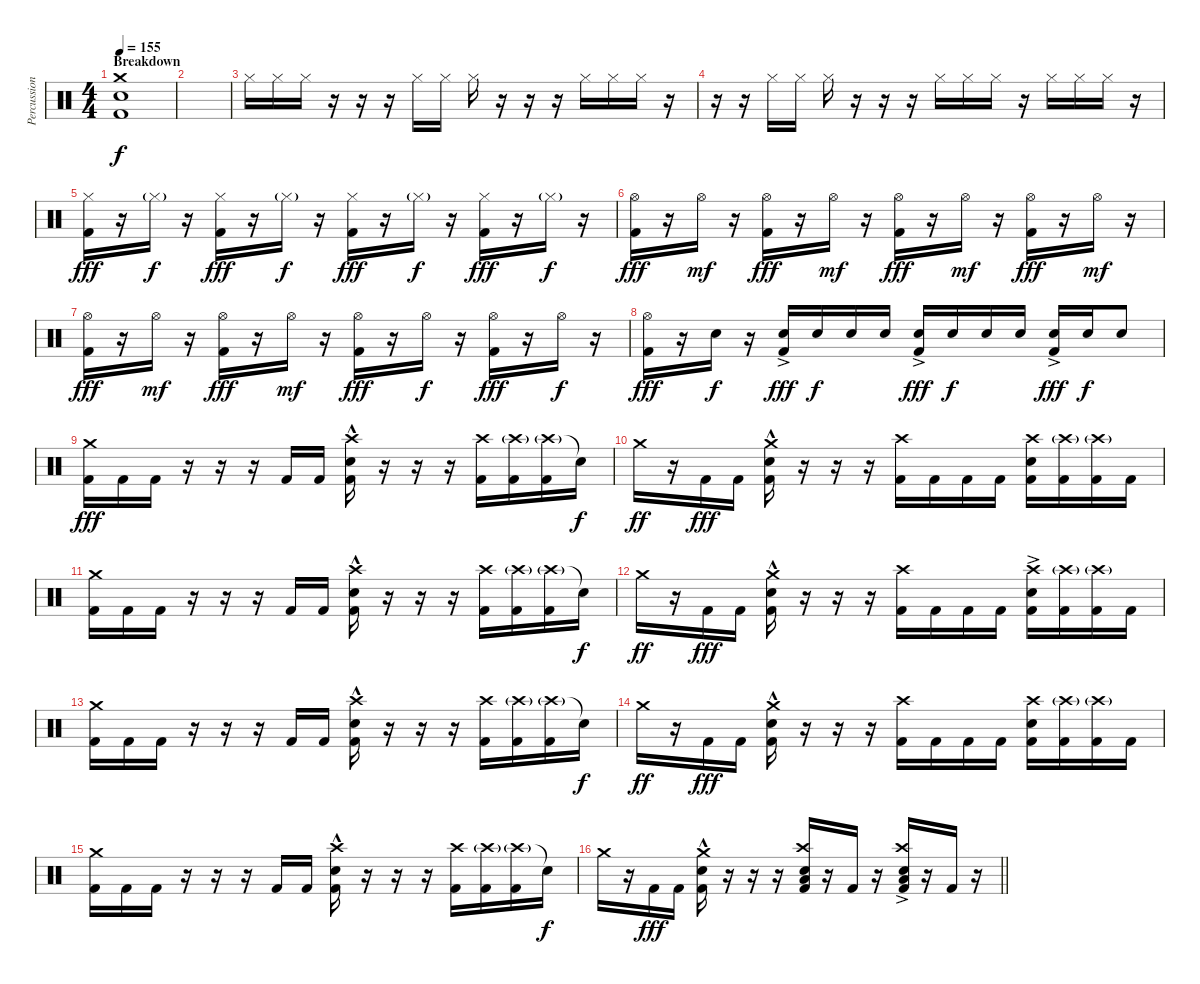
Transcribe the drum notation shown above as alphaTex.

\track ("Percussion (Mike Oliver)" "Percussion") {instrument percussion}
\staff {score}
\articulation defaults
\ts (4 4)
\section ("" "Breakdown")
\tempo 155
\clef neutral
\ks c
("Crash medium (hit)" "Snare (hit) 2" "Kick (hit) 2").1{dy f} |
|
"Hi-Hat (closed)".16 "Hi-Hat (closed)".16 "Hi-Hat (closed)".16 r.16 r.16 r.16 "Hi-Hat (closed)".16 "Hi-Hat (closed)".16 "Hi-Hat (closed)".16 r.16 r.16 r.16 "Hi-Hat (closed)".16 "Hi-Hat (closed)".16 "Hi-Hat (closed)".16 r.16 |
r.16 r.16 "Hi-Hat (closed)".16 "Hi-Hat (closed)".16 "Hi-Hat (closed)".16 r.16 r.16 r.16 "Hi-Hat (closed)".16 "Hi-Hat (closed)".16 "Hi-Hat (closed)".16 r.16 "Hi-Hat (closed)".16 "Hi-Hat (closed)".16 "Hi-Hat (closed)".16 r.16 |
("Hi-Hat (closed)" "Kick (hit) 2").16{dy fff} r.16 "Hi-Hat (closed)"{g}.16{dy f} r.16 ("Hi-Hat (closed)" "Kick (hit) 2").16{dy fff} r.16 "Hi-Hat (closed)"{g}.16{dy f} r.16 ("Hi-Hat (closed)" "Kick (hit) 2").16{dy fff} r.16 "Hi-Hat (closed)"{g}.16{dy f} r.16 ("Hi-Hat (closed)" "Kick (hit) 2").16{dy fff} r.16 "Hi-Hat (closed)"{g}.16{dy f} r.16 |
("Hi-Hat (open)" "Kick (hit) 2").16{dy fff} r.16 "Hi-Hat (open)".16{dy mf} r.16 ("Hi-Hat (open)" "Kick (hit) 2").16{dy fff} r.16 "Hi-Hat (open)".16{dy mf} r.16 ("Hi-Hat (open)" "Kick (hit) 2").16{dy fff} r.16 "Hi-Hat (open)".16{dy mf} r.16 ("Hi-Hat (open)" "Kick (hit) 2").16{dy fff} r.16 "Hi-Hat (open)".16{dy mf} r.16 |
("Hi-Hat (open)" "Kick (hit) 2").16{dy fff} r.16 "Hi-Hat (open)".16{dy mf} r.16 ("Hi-Hat (open)" "Kick (hit) 2").16{dy fff} r.16 "Hi-Hat (open)".16{dy mf} r.16 ("Hi-Hat (open)" "Kick (hit) 2").16{dy fff} r.16 "Hi-Hat (open)".16{dy f} r.16 ("Hi-Hat (open)" "Kick (hit) 2").16{dy fff} r.16 "Hi-Hat (open)".16{dy f} r.16 |
("Hi-Hat (open)" "Kick (hit) 2").16{dy fff} r.16 "Snare (hit) 2".16{dy f} r.16 ("Snare (hit) 2"{ac} "Kick (hit) 2").16{dy fff} "Snare (hit) 2".16{dy f} "Snare (hit) 2".16 "Snare (hit) 2".16 ("Snare (hit) 2"{ac} "Kick (hit) 2").16{dy fff} "Snare (hit) 2".16{dy f} "Snare (hit) 2".16 "Snare (hit) 2".16 ("Snare (hit) 2"{ac} "Kick (hit) 2").16{dy fff} "Snare (hit) 2".16{dy f} "Snare (hit) 2".8 |
("Crash medium (hit)" "Kick (hit) 2").16{dy fff} "Kick (hit) 2".16 "Kick (hit) 2".16 r.16 r.16 r.16 "Kick (hit) 2".16 "Kick (hit) 2".16 ("Crash high (hit)" "Snare (hit) 2"{hac} "Kick (hit) 2").16 r.16 r.16 r.16 ("Crash high (hit)" "Kick (hit) 2").16 ("Crash high (hit)"{g} "Kick (hit) 2").16 ("Crash high (hit)"{g} "Kick (hit) 2").16 "Snare (hit)"{t}.16{dy f} |
"Crash medium (hit)".16{dy ff} r.16 "Kick (hit) 2".16{dy fff} "Kick (hit) 2".16 ("Crash medium (hit)" "Snare (hit) 2"{hac} "Kick (hit) 2").16 r.16 r.16 r.16 ("Crash high (hit)" "Kick (hit) 2").16 "Kick (hit) 2".16 "Kick (hit) 2".16 "Kick (hit) 2".16 ("Crash high (hit)" "Snare (hit) 2" "Kick (hit) 2").16 ("Crash high (hit)"{g} "Kick (hit) 2").16 ("Crash high (hit)"{g} "Kick (hit) 2").16 "Kick (hit) 2".16 |
("Crash medium (hit)" "Kick (hit) 2").16 "Kick (hit) 2".16 "Kick (hit) 2".16 r.16 r.16 r.16 "Kick (hit) 2".16 "Kick (hit) 2".16 ("Crash high (hit)" "Snare (hit) 2"{hac} "Kick (hit) 2").16 r.16 r.16 r.16 ("Crash high (hit)" "Kick (hit) 2").16 ("Crash high (hit)"{g} "Kick (hit) 2").16 ("Crash high (hit)"{g} "Kick (hit) 2").16 "Snare (hit)"{t}.16{dy f} |
"Crash medium (hit)".16{dy ff} r.16 "Kick (hit) 2".16{dy fff} "Kick (hit) 2".16 ("Crash medium (hit)" "Snare (hit) 2"{hac} "Kick (hit) 2").16 r.16 r.16 r.16 ("Crash high (hit)" "Kick (hit) 2").16 "Kick (hit) 2".16 "Kick (hit) 2".16 "Kick (hit) 2".16 ("Crash high (hit)" "Snare (hit) 2"{ac} "Kick (hit) 2").16 ("Crash high (hit)"{g} "Kick (hit) 2").16 ("Crash high (hit)"{g} "Kick (hit) 2").16 "Kick (hit) 2".16 |
("Crash medium (hit)" "Kick (hit) 2").16 "Kick (hit) 2".16 "Kick (hit) 2".16 r.16 r.16 r.16 "Kick (hit) 2".16 "Kick (hit) 2".16 ("Crash high (hit)" "Snare (hit) 2"{hac} "Kick (hit) 2").16 r.16 r.16 r.16 ("Crash high (hit)" "Kick (hit) 2").16 ("Crash high (hit)"{g} "Kick (hit) 2").16 ("Crash high (hit)"{g} "Kick (hit) 2").16 "Snare (hit)"{t}.16{dy f} |
"Crash medium (hit)".16{dy ff} r.16 "Kick (hit) 2".16{dy fff} "Kick (hit) 2".16 ("Crash medium (hit)" "Snare (hit) 2"{hac} "Kick (hit) 2").16 r.16 r.16 r.16 ("Crash high (hit)" "Kick (hit) 2").16 "Kick (hit) 2".16 "Kick (hit) 2".16 "Kick (hit) 2".16 ("Crash high (hit)" "Snare (hit) 2" "Kick (hit) 2").16 ("Crash high (hit)"{g} "Kick (hit) 2").16 ("Crash high (hit)"{g} "Kick (hit) 2").16 "Kick (hit) 2".16 |
("Crash medium (hit)" "Kick (hit) 2").16 "Kick (hit) 2".16 "Kick (hit) 2".16 r.16 r.16 r.16 "Kick (hit) 2".16 "Kick (hit) 2".16 ("Crash high (hit)" "Snare (hit) 2"{hac} "Kick (hit) 2").16 r.16 r.16 r.16 ("Crash high (hit)" "Kick (hit) 2").16 ("Crash high (hit)"{g} "Kick (hit) 2").16 ("Crash high (hit)"{g} "Kick (hit) 2").16 "Snare (hit)"{t}.16{dy f} |
\barLineRight lightlight "Crash medium (hit)".16
r.16 "Kick (hit) 2".16{dy fff} "Kick (hit) 2".16 ("Crash medium (hit)" "Snare (hit) 2"{hac} "Kick (hit) 2").16 r.16 r.16 r.16 ("Crash high (hit)" "Low Tom (hit)" "Snare (hit) 2" "Kick (hit) 2").16 r.16 "Kick (hit) 2".16 r.16 ("Crash high (hit)" "Low Floor Tom (hit)" "Snare (hit) 2"{ac} "Kick (hit) 2").16 r.16 "Kick (hit) 2".16 r.16
